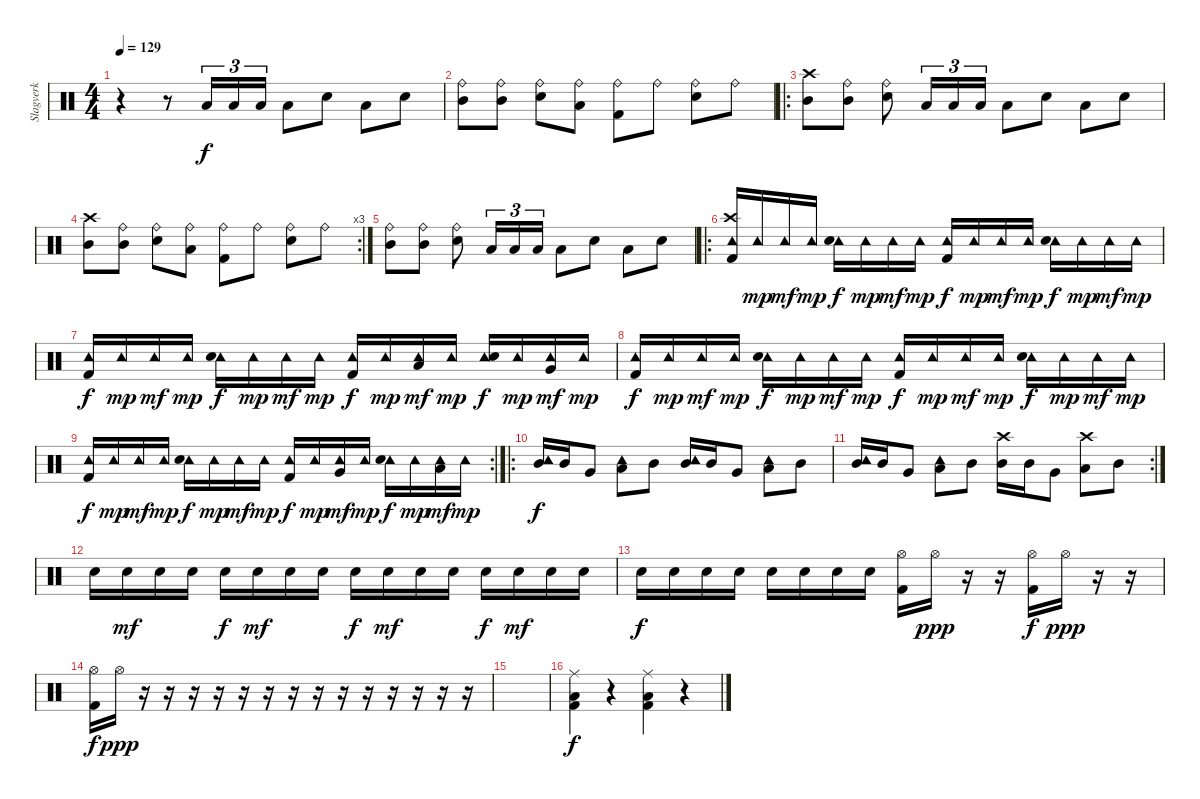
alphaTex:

\track ("Slagverk" "Slagverk") {instrument percussion}
\staff {score}
\articulation defaults
\ts (4 4)
\tempo 129
\clef neutral
\ks c
r.4{dy f} r.8 "Low Tom (hit)".16{tu (3 2)} "Low Tom (hit)".16{tu (3 2)} "Low Tom (hit)".16{tu (3 2)} "Low Tom (hit)".8 "Electric Snare (hit)".8 "Low Tom (hit)".8 "Electric Snare (hit)".8 |
("Ride (bell)" "Mid Tom (hit)").8 ("Ride (bell)" "Mid Tom (hit)").8 ("Ride (bell)" "Electric Snare (hit)").8 ("Ride (bell)" "Low Tom (hit)").8 ("Ride (bell)" "Kick (hit) 2").8 "Ride (bell)".8 ("Ride (bell)" "Electric Snare (hit)").8 "Ride (bell)".8 |
\ro
("Crash high (hit)" "Mid Tom (hit)").8 ("Ride (bell)" "Mid Tom (hit)").8 ("Ride (bell)" "Electric Snare (hit)").8 "Low Tom (hit)".16{tu (3 2)} "Low Tom (hit)".16{tu (3 2)} "Low Tom (hit)".16{tu (3 2)} "Low Tom (hit)".8 "Electric Snare (hit)".8 "Low Tom (hit)".8 "Electric Snare (hit)".8 |
\rc 3
("Crash high (hit)" "Mid Tom (hit)").8 ("Ride (bell)" "Mid Tom (hit)").8 ("Ride (bell)" "Electric Snare (hit)").8 ("Ride (bell)" "Low Tom (hit)").8 ("Ride (bell)" "Kick (hit) 2").8 "Ride (bell)".8 ("Ride (bell)" "Electric Snare (hit)").8 "Ride (bell)".8 |
("Ride (bell)" "Mid Tom (hit)").8 ("Ride (bell)" "Mid Tom (hit)").8 ("Ride (bell)" "Electric Snare (hit)").8 "Low Tom (hit)".16{tu (3 2)} "Low Tom (hit)".16{tu (3 2)} "Low Tom (hit)".16{tu (3 2)} "Low Tom (hit)".8 "Electric Snare (hit)".8 "Low Tom (hit)".8 "Electric Snare (hit)".8 |
\ro
("Tambourine (hit)" "Crash high (hit)" "Kick (hit) 2").16 "Tambourine (hit)".16{dy mp} "Tambourine (hit)".16{dy mf} "Tambourine (hit)".16{dy mp} ("Tambourine (hit)" "Electric Snare (hit)").16{dy f} "Tambourine (hit)".16{dy mp} "Tambourine (hit)".16{dy mf} "Tambourine (hit)".16{dy mp} ("Tambourine (hit)" "Kick (hit) 2").16{dy f} "Tambourine (hit)".16{dy mp} "Tambourine (hit)".16{dy mf} "Tambourine (hit)".16{dy mp} ("Tambourine (hit)" "Electric Snare (hit)").16{dy f} "Tambourine (hit)".16{dy mp} "Tambourine (hit)".16{dy mf} "Tambourine (hit)".16{dy mp} |
("Tambourine (hit)" "Kick (hit) 2").16{dy f} "Tambourine (hit)".16{dy mp} "Tambourine (hit)".16{dy mf} "Tambourine (hit)".16{dy mp} ("Tambourine (hit)" "Electric Snare (hit)").16{dy f} "Tambourine (hit)".16{dy mp} "Tambourine (hit)".16{dy mf} "Tambourine (hit)".16{dy mp} ("Tambourine (hit)" "Kick (hit) 2").16{dy f} "Tambourine (hit)".16{dy mp} ("Tambourine (hit)" "Low Tom (hit)").16{dy mf} "Tambourine (hit)".16{dy mp} ("Tambourine (hit)" "Electric Snare (hit)").16{dy f} "Tambourine (hit)".16{dy mp} ("Tambourine (hit)" "Very Low Tom (hit)").16{dy mf} "Tambourine (hit)".16{dy mp} |
("Tambourine (hit)" "Kick (hit) 2").16{dy f} "Tambourine (hit)".16{dy mp} "Tambourine (hit)".16{dy mf} "Tambourine (hit)".16{dy mp} ("Tambourine (hit)" "Electric Snare (hit)").16{dy f} "Tambourine (hit)".16{dy mp} "Tambourine (hit)".16{dy mf} "Tambourine (hit)".16{dy mp} ("Tambourine (hit)" "Kick (hit) 2").16{dy f} "Tambourine (hit)".16{dy mp} "Tambourine (hit)".16{dy mf} "Tambourine (hit)".16{dy mp} ("Tambourine (hit)" "Electric Snare (hit)").16{dy f} "Tambourine (hit)".16{dy mp} "Tambourine (hit)".16{dy mf} "Tambourine (hit)".16{dy mp} |
\rc 2
("Tambourine (hit)" "Kick (hit) 2").16{dy f} "Tambourine (hit)".16{dy mp} "Tambourine (hit)".16{dy mf} "Tambourine (hit)".16{dy mp} ("Tambourine (hit)" "Electric Snare (hit)").16{dy f} "Tambourine (hit)".16{dy mp} "Tambourine (hit)".16{dy mf} "Tambourine (hit)".16{dy mp} ("Tambourine (hit)" "Kick (hit) 2").16{dy f} "Tambourine (hit)".16{dy mp} ("Tambourine (hit)" "Very Low Tom (hit)").16{dy mf} "Tambourine (hit)".16{dy mp} ("Tambourine (hit)" "Electric Snare (hit)").16{dy f} "Tambourine (hit)".16{dy mp} ("Tambourine (hit)" "Low Floor Tom (hit)").16{dy mf} "Tambourine (hit)".16{dy mp} |
\ro
("Tambourine (hit)" "Mid Tom (hit)").16{dy f} "Mid Tom (hit)".16 "Very Low Tom (hit)".8 ("Tambourine (hit)" "Low Floor Tom (hit)").8 "Mid Tom (hit)".8 ("Tambourine (hit)" "Mid Tom (hit)").16 "Mid Tom (hit)".16 "Very Low Tom (hit)".8 ("Tambourine (hit)" "Low Floor Tom (hit)").8 "Mid Tom (hit)".8 |
\rc 2
("Tambourine (hit)" "Mid Tom (hit)").16 "Mid Tom (hit)".16 "Very Low Tom (hit)".8 ("Tambourine (hit)" "Low Floor Tom (hit)").8 "Mid Tom (hit)".8 ("Crash high (hit)" "Mid Tom (hit)").16 "Mid Tom (hit)".16 "Very Low Tom (hit)".8 ("Crash high (hit)" "Low Floor Tom (hit)").8 "Mid Tom (hit)".8 |
"Electric Snare (hit)".16 "Electric Snare (hit)".16{dy mf} "Electric Snare (hit)".16 "Electric Snare (hit)".16 "Electric Snare (hit)".16{dy f} "Electric Snare (hit)".16{dy mf} "Electric Snare (hit)".16 "Electric Snare (hit)".16 "Electric Snare (hit)".16{dy f} "Electric Snare (hit)".16{dy mf} "Electric Snare (hit)".16 "Electric Snare (hit)".16 "Electric Snare (hit)".16{dy f} "Electric Snare (hit)".16{dy mf} "Electric Snare (hit)".16 "Electric Snare (hit)".16 |
"Electric Snare (hit)".16{dy f} "Electric Snare (hit)".16 "Electric Snare (hit)".16 "Electric Snare (hit)".16 "Electric Snare (hit)".16 "Electric Snare (hit)".16 "Electric Snare (hit)".16 "Electric Snare (hit)".16 ("Hi-Hat (open)" "Kick (hit) 2").16 "Hi-Hat (open)".16{dy ppp} r.16 r.16 ("Hi-Hat (open)" "Kick (hit) 2").16{dy f} "Hi-Hat (open)".16{dy ppp} r.16 r.16 |
("Hi-Hat (open)" "Kick (hit) 2").16{dy f} "Hi-Hat (open)".16{dy ppp} r.16 r.16 r.16 r.16 r.16 r.16 r.16 r.16 r.16 r.16 r.16 r.16 r.16 r.16 |
|
("Ride (middle)" "Low Tom (hit)" "Kick (hit) 2").4{dy f} r.4 ("Ride (middle)" "Low Tom (hit)" "Kick (hit) 2").4 r.4
